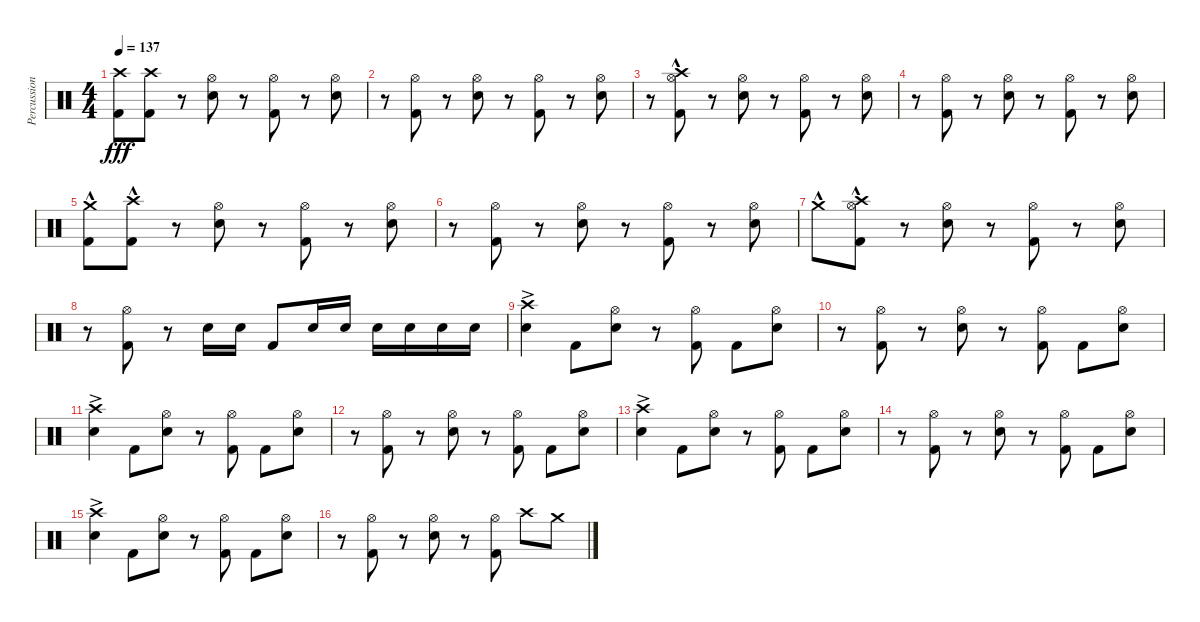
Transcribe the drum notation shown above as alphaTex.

\track ("Percussion" "Percussion") {solo instrument percussion}
\staff {score}
\articulation defaults
\ts (4 4)
\tempo 137
\clef neutral
\ks c
("Crash high (hit)" "Kick (hit) 2").8{dy fff} ("Crash high (hit)" "Kick (hit) 2").8 r.8 ("Electric Snare (hit)" "Hi-Hat (open)").8 r.8 ("Kick (hit) 2" "Hi-Hat (open)").8 r.8 ("Electric Snare (hit)" "Hi-Hat (open)").8 |
r.8 ("Kick (hit) 2" "Hi-Hat (open)").8 r.8 ("Electric Snare (hit)" "Hi-Hat (open)").8 r.8 ("Kick (hit) 2" "Hi-Hat (open)").8 r.8 ("Electric Snare (hit)" "Hi-Hat (open)").8 |
r.8 ("Kick (hit) 2" "Hi-Hat (open)"{hac} "Crash high (hit)").8 r.8 ("Electric Snare (hit)" "Hi-Hat (open)").8 r.8 ("Kick (hit) 2" "Hi-Hat (open)").8 r.8 ("Electric Snare (hit)" "Hi-Hat (open)").8 |
r.8 ("Kick (hit) 2" "Hi-Hat (open)").8 r.8 ("Electric Snare (hit)" "Hi-Hat (open)").8 r.8 ("Kick (hit) 2" "Hi-Hat (open)").8 r.8 ("Electric Snare (hit)" "Hi-Hat (open)").8 |
("Crash medium (hit)"{hac} "Kick (hit) 2").8 ("Crash high (hit)"{hac} "Kick (hit) 2").8 r.8 ("Electric Snare (hit)" "Hi-Hat (open)").8 r.8 ("Kick (hit) 2" "Hi-Hat (open)").8 r.8 ("Electric Snare (hit)" "Hi-Hat (open)").8 |
r.8 ("Kick (hit) 2" "Hi-Hat (open)").8 r.8 ("Electric Snare (hit)" "Hi-Hat (open)").8 r.8 ("Kick (hit) 2" "Hi-Hat (open)").8 r.8 ("Electric Snare (hit)" "Hi-Hat (open)").8 |
"Crash medium (hit)"{hac}.8 ("Kick (hit) 2" "Hi-Hat (open)"{hac} "Crash high (hit)").8 r.8 ("Electric Snare (hit)" "Hi-Hat (open)").8 r.8 ("Kick (hit) 2" "Hi-Hat (open)").8 r.8 ("Electric Snare (hit)" "Hi-Hat (open)").8 |
r.8 ("Kick (hit) 2" "Hi-Hat (open)").8 r.8 "Electric Snare (hit)".16 "Electric Snare (hit)".16 "Kick (hit) 2".8 "Electric Snare (hit)".16 "Electric Snare (hit)".16 "Electric Snare (hit)".16 "Electric Snare (hit)".16 "Snare (hit) 2".16 "Snare (hit) 2".16 |
("Crash high (hit)"{ac} "Electric Snare (hit)"{ac}).4 "Kick (hit) 2".8 ("Electric Snare (hit)" "Hi-Hat (open)").8 r.8 ("Kick (hit) 2" "Hi-Hat (open)").8 "Kick (hit) 2".8 ("Electric Snare (hit)" "Hi-Hat (open)").8 |
r.8 ("Kick (hit) 2" "Hi-Hat (open)").8 r.8 ("Electric Snare (hit)" "Hi-Hat (open)").8 r.8 ("Kick (hit) 2" "Hi-Hat (open)").8 "Kick (hit) 2".8 ("Electric Snare (hit)" "Hi-Hat (open)").8 |
("Crash high (hit)"{ac} "Electric Snare (hit)"{ac}).4 "Kick (hit) 2".8 ("Electric Snare (hit)" "Hi-Hat (open)").8 r.8 ("Kick (hit) 2" "Hi-Hat (open)").8 "Kick (hit) 2".8 ("Electric Snare (hit)" "Hi-Hat (open)").8 |
r.8 ("Kick (hit) 2" "Hi-Hat (open)").8 r.8 ("Electric Snare (hit)" "Hi-Hat (open)").8 r.8 ("Kick (hit) 2" "Hi-Hat (open)").8 "Kick (hit) 2".8 ("Electric Snare (hit)" "Hi-Hat (open)").8 |
("Crash high (hit)"{ac} "Electric Snare (hit)"{ac}).4 "Kick (hit) 2".8 ("Electric Snare (hit)" "Hi-Hat (open)").8 r.8 ("Kick (hit) 2" "Hi-Hat (open)").8 "Kick (hit) 2".8 ("Electric Snare (hit)" "Hi-Hat (open)").8 |
r.8 ("Kick (hit) 2" "Hi-Hat (open)").8 r.8 ("Electric Snare (hit)" "Hi-Hat (open)").8 r.8 ("Kick (hit) 2" "Hi-Hat (open)").8 "Kick (hit) 2".8 ("Electric Snare (hit)" "Hi-Hat (open)").8 |
("Crash high (hit)"{ac} "Electric Snare (hit)"{ac}).4 "Kick (hit) 2".8 ("Electric Snare (hit)" "Hi-Hat (open)").8 r.8 ("Kick (hit) 2" "Hi-Hat (open)").8 "Kick (hit) 2".8 ("Electric Snare (hit)" "Hi-Hat (open)").8 |
r.8 ("Kick (hit) 2" "Hi-Hat (open)").8 r.8 ("Electric Snare (hit)" "Hi-Hat (open)").8 r.8 ("Kick (hit) 2" "Hi-Hat (open)").8 "Crash high (hit)".8 "Crash medium (hit)".8
